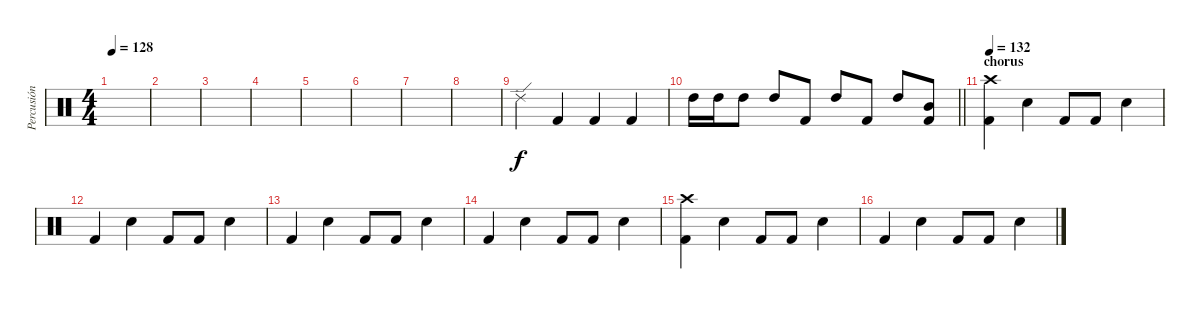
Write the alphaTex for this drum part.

\track ("Percusión" "Percusión") {instrument percussion}
\staff {score}
\articulation defaults
\ts (4 4)
\tempo 128
\clef neutral
\ks c
|
|
|
|
|
|
|
|
"Ride (edge) 2".4 "Kick (hit) 2".4 "Kick (hit) 2".4 "Kick (hit) 2".4 |
\barLineRight lightlight "High Tom (hit)".16 "High Tom (hit)".16 "High Tom (hit)".8 "High Tom (hit)".8 "Kick (hit) 2".8 "High Tom (hit)".8 "Kick (hit) 2".8 "High Tom (hit)".8
("Mid Tom (hit)" "Kick (hit) 2").8 |
\section ("" "chorus")
\tempo 132
("Crash high (hit)" "Kick (hit) 2").4 "Electric Snare (hit)".4 "Kick (hit) 2".8 "Kick (hit) 2".8 "Electric Snare (hit)".4 |
"Kick (hit) 2".4 "Electric Snare (hit)".4 "Kick (hit) 2".8 "Kick (hit) 2".8 "Electric Snare (hit)".4 |
"Kick (hit) 2".4 "Electric Snare (hit)".4 "Kick (hit) 2".8 "Kick (hit) 2".8 "Electric Snare (hit)".4 |
"Kick (hit) 2".4 "Electric Snare (hit)".4 "Kick (hit) 2".8 "Kick (hit) 2".8 "Electric Snare (hit)".4 |
("Crash high (hit)" "Kick (hit) 2").4 "Electric Snare (hit)".4 "Kick (hit) 2".8 "Kick (hit) 2".8 "Electric Snare (hit)".4 |
"Kick (hit) 2".4 "Electric Snare (hit)".4 "Kick (hit) 2".8 "Kick (hit) 2".8 "Electric Snare (hit)".4
